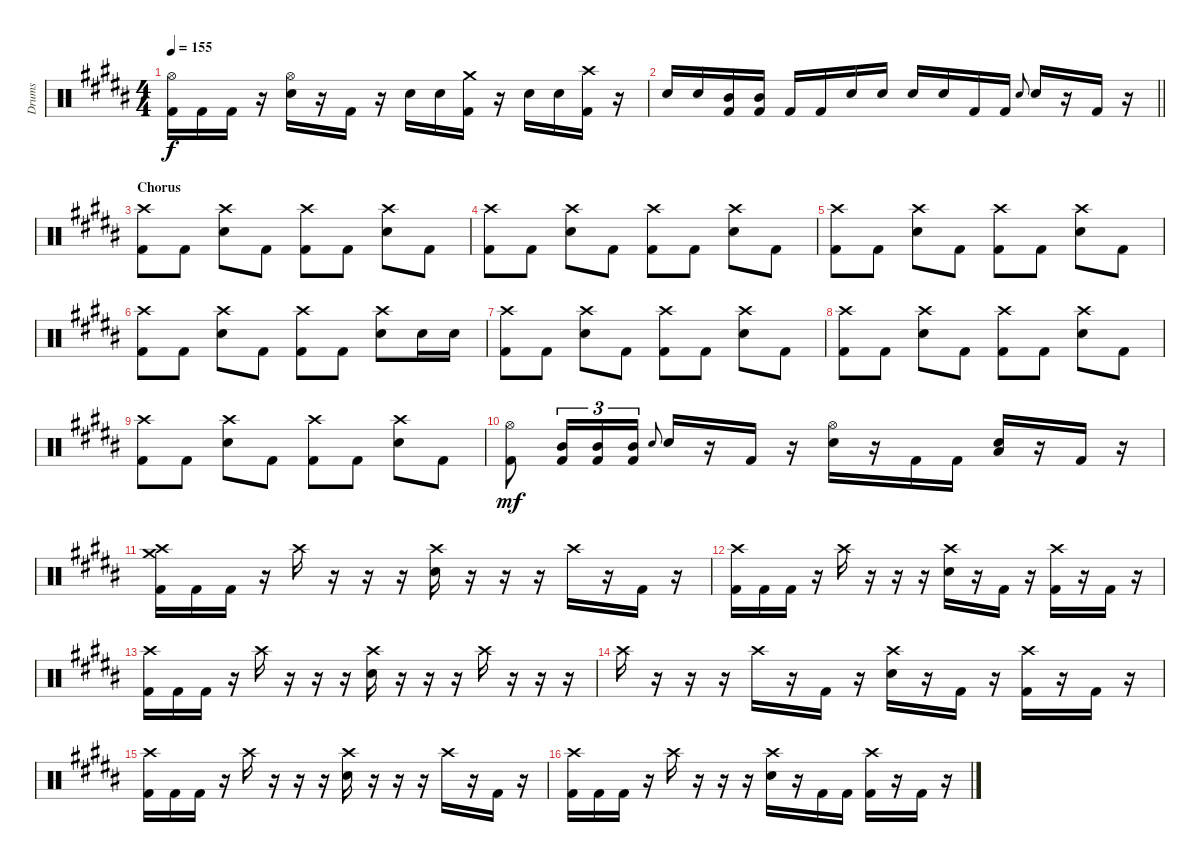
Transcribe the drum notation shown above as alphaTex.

\track ("Drums" "Drums") {instrument percussion}
\staff {score}
\articulation defaults
\ts (4 4)
\tempo 155
\clef neutral
\ks g#minor
("Hi-Hat (open)" "Kick (hit) 2").16{dy f} "Kick (hit) 2".16 "Kick (hit) 2".16 r.16 ("Hi-Hat (open)" "Electric Snare (hit)").16 r.16 "Kick (hit) 2".16 r.16 "Electric Snare (hit)".16 "Electric Snare (hit)".16 ("Crash medium (hit)" "Kick (hit) 2").16 r.16 "Electric Snare (hit)".16 "Electric Snare (hit)".16 ("Crash high (hit)" "Kick (hit) 2").16 r.16 |
\barLineRight lightlight "Electric Snare (hit)".16 "Electric Snare (hit)".16
("Mid Tom (hit)" "Kick (hit) 2").16 ("Mid Tom (hit)" "Kick (hit) 2").16 "Kick (hit) 2".16 "Kick (hit) 2".16 "Electric Snare (hit)".16 "Electric Snare (hit)".16 "Electric Snare (hit)".16 "Electric Snare (hit)".16 "Kick (hit) 2".16 "Kick (hit) 2".16 "Electric Snare (hit)".8{gr onbeat} "Electric Snare (hit)".16 r.16 "Kick (hit) 2".16 r.16 |
\section ("" "Chorus")
("Crash high (hit)" "Kick (hit) 2").8 "Kick (hit) 2".8 ("Crash high (hit)" "Electric Snare (hit)").8 "Kick (hit) 2".8 ("Crash high (hit)" "Kick (hit) 2").8 "Kick (hit) 2".8 ("Crash high (hit)" "Electric Snare (hit)").8 "Kick (hit) 2".8 |
("Crash high (hit)" "Kick (hit) 2").8 "Kick (hit) 2".8 ("Crash high (hit)" "Electric Snare (hit)").8 "Kick (hit) 2".8 ("Crash high (hit)" "Kick (hit) 2").8 "Kick (hit) 2".8 ("Crash high (hit)" "Electric Snare (hit)").8 "Kick (hit) 2".8 |
("Crash high (hit)" "Kick (hit) 2").8 "Kick (hit) 2".8 ("Crash high (hit)" "Electric Snare (hit)").8 "Kick (hit) 2".8 ("Crash high (hit)" "Kick (hit) 2").8 "Kick (hit) 2".8 ("Crash high (hit)" "Electric Snare (hit)").8 "Kick (hit) 2".8 |
("Crash high (hit)" "Kick (hit) 2").8 "Kick (hit) 2".8 ("Crash high (hit)" "Electric Snare (hit)").8 "Kick (hit) 2".8 ("Crash high (hit)" "Kick (hit) 2").8 "Kick (hit) 2".8 ("Crash high (hit)" "Electric Snare (hit)").8 "Electric Snare (hit)".16 "Electric Snare (hit)".16 |
("Crash high (hit)" "Kick (hit) 2").8 "Kick (hit) 2".8 ("Crash high (hit)" "Electric Snare (hit)").8 "Kick (hit) 2".8 ("Crash high (hit)" "Kick (hit) 2").8 "Kick (hit) 2".8 ("Crash high (hit)" "Electric Snare (hit)").8 "Kick (hit) 2".8 |
("Crash high (hit)" "Kick (hit) 2").8 "Kick (hit) 2".8 ("Crash high (hit)" "Electric Snare (hit)").8 "Kick (hit) 2".8 ("Crash high (hit)" "Kick (hit) 2").8 "Kick (hit) 2".8 ("Crash high (hit)" "Electric Snare (hit)").8 "Kick (hit) 2".8 |
("Crash high (hit)" "Kick (hit) 2").8 "Kick (hit) 2".8 ("Crash high (hit)" "Electric Snare (hit)").8 "Kick (hit) 2".8 ("Crash high (hit)" "Kick (hit) 2").8 "Kick (hit) 2".8 ("Crash high (hit)" "Electric Snare (hit)").8 "Kick (hit) 2".8 |
("Hi-Hat (open)" "Kick (hit) 2").8{dy mf} ("Mid Tom (hit)" "Kick (hit) 2").16{tu (3 2)} ("Mid Tom (hit)" "Kick (hit) 2").16{tu (3 2)} ("Mid Tom (hit)" "Kick (hit) 2").16{tu (3 2)} "Electric Snare (hit)"{h}.8{gr onbeat} "Electric Snare (hit)".16 r.16 "Kick (hit) 2".16 r.16 ("Hi-Hat (open)" "Electric Snare (hit)").16 r.16 "Kick (hit) 2".16 "Kick (hit) 2".16 ("Low Floor Tom (hit)" "Electric Snare (hit)").16 r.16 "Kick (hit) 2".16 r.16 |
("Crash high (hit)" "Crash medium (hit)" "Kick (hit) 2").16 "Kick (hit) 2".16 "Kick (hit) 2".16 r.16 "Crash high (hit)".16 r.16 r.16 r.16 ("Crash high (hit)" "Electric Snare (hit)").16 r.16 r.16 r.16 "Crash high (hit)".16 r.16 "Kick (hit) 2".16 r.16 |
("Crash high (hit)" "Kick (hit) 2").16 "Kick (hit) 2".16 "Kick (hit) 2".16 r.16 "Crash high (hit)".16 r.16 r.16 r.16 ("Crash high (hit)" "Electric Snare (hit)").16 r.16 "Kick (hit) 2".16 r.16 ("Crash high (hit)" "Kick (hit) 2").16 r.16 "Kick (hit) 2".16 r.16 |
("Crash high (hit)" "Kick (hit) 2").16 "Kick (hit) 2".16 "Kick (hit) 2".16 r.16 "Crash high (hit)".16 r.16 r.16 r.16 ("Crash high (hit)" "Electric Snare (hit)").16 r.16 r.16 r.16 "Crash high (hit)".16 r.16 r.16 r.16 |
"Crash high (hit)".16 r.16 r.16 r.16 "Crash high (hit)".16 r.16 "Kick (hit) 2".16 r.16 ("Crash high (hit)" "Electric Snare (hit)").16 r.16 "Kick (hit) 2".16 r.16 ("Crash high (hit)" "Kick (hit) 2").16 r.16 "Kick (hit) 2".16 r.16 |
("Crash high (hit)" "Kick (hit) 2").16 "Kick (hit) 2".16 "Kick (hit) 2".16 r.16 "Crash high (hit)".16 r.16 r.16 r.16 ("Crash high (hit)" "Electric Snare (hit)").16 r.16 r.16 r.16 "Crash high (hit)".16 r.16 "Kick (hit) 2".16 r.16 |
("Crash high (hit)" "Kick (hit) 2").16 "Kick (hit) 2".16 "Kick (hit) 2".16 r.16 "Crash high (hit)".16 r.16 r.16 r.16 ("Crash high (hit)" "Electric Snare (hit)").16 r.16 "Kick (hit) 2".16 "Kick (hit) 2".16 ("Crash high (hit)" "Kick (hit) 2").16 r.16 "Kick (hit) 2".16 r.16
